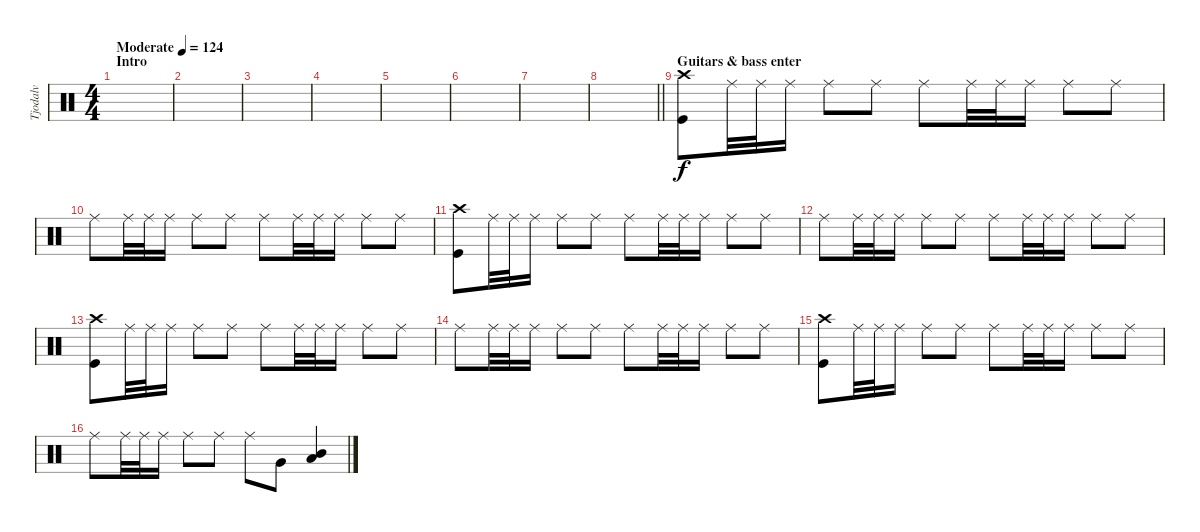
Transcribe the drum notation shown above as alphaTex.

\track ("Tjodalv" "Tjodalv") {instrument percussion}
\staff {score}
\articulation defaults
\ts (4 4)
\section ("" "Intro")
\tempo (124 "Moderate")
\clef neutral
\ks c
|
|
|
|
|
|
|
\barLineRight lightlight
|
\section ("" "Guitars & bass enter")
("Crash high (hit)" "Kick (hit)").8 "Ride (middle)".32 "Ride (middle)".32 "Ride (middle)".16 "Ride (middle)".8 "Ride (middle)".8 "Ride (middle)".8 "Ride (middle)".32 "Ride (middle)".32 "Ride (middle)".16 "Ride (middle)".8 "Ride (middle)".8 |
"Ride (middle)".8 "Ride (middle)".32 "Ride (middle)".32 "Ride (middle)".16 "Ride (middle)".8 "Ride (middle)".8 "Ride (middle)".8 "Ride (middle)".32 "Ride (middle)".32 "Ride (middle)".16 "Ride (middle)".8 "Ride (middle)".8 |
("Crash high (hit)" "Kick (hit)").8 "Ride (middle)".32 "Ride (middle)".32 "Ride (middle)".16 "Ride (middle)".8 "Ride (middle)".8 "Ride (middle)".8 "Ride (middle)".32 "Ride (middle)".32 "Ride (middle)".16 "Ride (middle)".8 "Ride (middle)".8 |
"Ride (middle)".8 "Ride (middle)".32 "Ride (middle)".32 "Ride (middle)".16 "Ride (middle)".8 "Ride (middle)".8 "Ride (middle)".8 "Ride (middle)".32 "Ride (middle)".32 "Ride (middle)".16 "Ride (middle)".8 "Ride (middle)".8 |
("Crash high (hit)" "Kick (hit)").8 "Ride (middle)".32 "Ride (middle)".32 "Ride (middle)".16 "Ride (middle)".8 "Ride (middle)".8 "Ride (middle)".8 "Ride (middle)".32 "Ride (middle)".32 "Ride (middle)".16 "Ride (middle)".8 "Ride (middle)".8 |
"Ride (middle)".8 "Ride (middle)".32 "Ride (middle)".32 "Ride (middle)".16 "Ride (middle)".8 "Ride (middle)".8 "Ride (middle)".8 "Ride (middle)".32 "Ride (middle)".32 "Ride (middle)".16 "Ride (middle)".8 "Ride (middle)".8 |
("Crash high (hit)" "Kick (hit)").8 "Ride (middle)".32 "Ride (middle)".32 "Ride (middle)".16 "Ride (middle)".8 "Ride (middle)".8 "Ride (middle)".8 "Ride (middle)".32 "Ride (middle)".32 "Ride (middle)".16 "Ride (middle)".8 "Ride (middle)".8 |
"Ride (middle)".8 "Ride (middle)".32 "Ride (middle)".32 "Ride (middle)".16 "Ride (middle)".8 "Ride (middle)".8 "Ride (middle)".8 "Very Low Tom (hit)".8 ("Mid Tom (hit)" "Low Floor Tom (hit)").4
